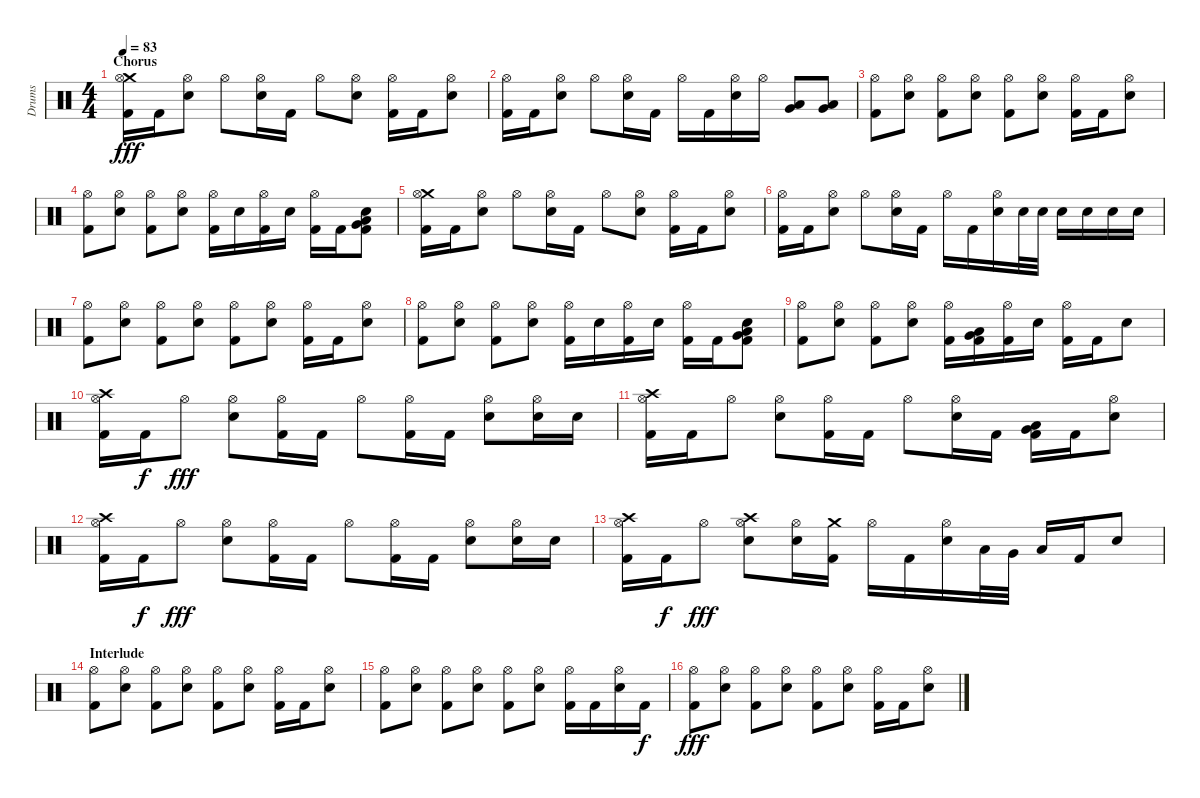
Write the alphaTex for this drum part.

\track ("Drums" "Drums") {instrument percussion}
\staff {score}
\articulation defaults
\ts (4 4)
\section ("" "Chorus")
\tempo 83
\clef neutral
\ks c
("Crash medium (hit)" "Hi-Hat (open)" "Kick (hit) 2").16{dy fff} "Kick (hit) 2".16 ("Hi-Hat (open)" "Electric Snare (hit)").8 "Hi-Hat (open)".8 ("Hi-Hat (open)" "Electric Snare (hit)").16 "Kick (hit) 2".16 "Hi-Hat (open)".8 ("Hi-Hat (open)" "Electric Snare (hit)").8 ("Hi-Hat (open)" "Kick (hit) 2").16 "Kick (hit) 2".16 ("Hi-Hat (open)" "Electric Snare (hit)").8 |
("Hi-Hat (open)" "Kick (hit) 2").16 "Kick (hit) 2".16 ("Hi-Hat (open)" "Electric Snare (hit)").8 "Hi-Hat (open)".8 ("Hi-Hat (open)" "Electric Snare (hit)").16 "Kick (hit) 2".16 "Hi-Hat (open)".16 "Kick (hit) 2".16 ("Hi-Hat (open)" "Electric Snare (hit)").16 "Hi-Hat (open)".16 ("Very Low Tom (hit)" "Low Tom (hit)").8 ("Low Floor Tom (hit)" "Very Low Tom (hit)").8 |
("Hi-Hat (open)" "Kick (hit) 2").8 ("Hi-Hat (open)" "Electric Snare (hit)").8 ("Hi-Hat (open)" "Kick (hit) 2").8 ("Hi-Hat (open)" "Electric Snare (hit)").8 ("Hi-Hat (open)" "Kick (hit) 2").8 ("Hi-Hat (open)" "Electric Snare (hit)").8 ("Hi-Hat (open)" "Kick (hit) 2").16 "Kick (hit) 2".16 ("Hi-Hat (open)" "Electric Snare (hit)").8 |
("Hi-Hat (open)" "Kick (hit) 2").8 ("Hi-Hat (open)" "Electric Snare (hit)").8 ("Hi-Hat (open)" "Kick (hit) 2").8 ("Hi-Hat (open)" "Electric Snare (hit)").8 ("Hi-Hat (open)" "Kick (hit) 2").16 "Electric Snare (hit)".16 ("Hi-Hat (open)" "Kick (hit) 2").16 "Electric Snare (hit)".16 ("Hi-Hat (open)" "Kick (hit) 2").16 "Kick (hit) 2".16 ("Electric Snare (hit)" "Very Low Tom (hit)" "Low Tom (hit)" "Kick (hit) 2").8 |
("Crash medium (hit)" "Hi-Hat (open)" "Kick (hit) 2").16 "Kick (hit) 2".16 ("Hi-Hat (open)" "Electric Snare (hit)").8 "Hi-Hat (open)".8 ("Hi-Hat (open)" "Electric Snare (hit)").16 "Kick (hit) 2".16 "Hi-Hat (open)".8 ("Hi-Hat (open)" "Electric Snare (hit)").8 ("Hi-Hat (open)" "Kick (hit) 2").16 "Kick (hit) 2".16 ("Hi-Hat (open)" "Electric Snare (hit)").8 |
("Hi-Hat (open)" "Kick (hit) 2").16 "Kick (hit) 2".16 ("Hi-Hat (open)" "Electric Snare (hit)").8 "Hi-Hat (open)".8 ("Hi-Hat (open)" "Electric Snare (hit)").16 "Kick (hit) 2".16 "Hi-Hat (open)".16 "Kick (hit) 2".16 ("Hi-Hat (open)" "Electric Snare (hit)").16 "Electric Snare (hit)".32 "Electric Snare (hit)".32 "Electric Snare (hit)".16 "Electric Snare (hit)".16 "Electric Snare (hit)".16 "Electric Snare (hit)".16 |
("Hi-Hat (open)" "Kick (hit) 2").8 ("Hi-Hat (open)" "Electric Snare (hit)").8 ("Hi-Hat (open)" "Kick (hit) 2").8 ("Hi-Hat (open)" "Electric Snare (hit)").8 ("Hi-Hat (open)" "Kick (hit) 2").8 ("Hi-Hat (open)" "Electric Snare (hit)").8 ("Hi-Hat (open)" "Kick (hit) 2").16 "Kick (hit) 2".16 ("Hi-Hat (open)" "Electric Snare (hit)").8 |
("Hi-Hat (open)" "Kick (hit) 2").8 ("Hi-Hat (open)" "Electric Snare (hit)").8 ("Hi-Hat (open)" "Kick (hit) 2").8 ("Hi-Hat (open)" "Electric Snare (hit)").8 ("Hi-Hat (open)" "Kick (hit) 2").16 "Electric Snare (hit)".16 ("Hi-Hat (open)" "Kick (hit) 2").16 "Electric Snare (hit)".16 ("Hi-Hat (open)" "Kick (hit) 2").16 "Kick (hit) 2".16 ("Electric Snare (hit)" "Very Low Tom (hit)" "Low Tom (hit)" "Kick (hit) 2").8 |
("Hi-Hat (open)" "Kick (hit) 2").8 ("Hi-Hat (open)" "Electric Snare (hit)").8 ("Hi-Hat (open)" "Kick (hit) 2").8 ("Hi-Hat (open)" "Electric Snare (hit)").8 ("Hi-Hat (open)" "Kick (hit) 2").16 ("Very Low Tom (hit)" "Low Tom (hit)" "Kick (hit) 2").16 ("Hi-Hat (open)" "Kick (hit) 2").16 "Electric Snare (hit)".16 ("Hi-Hat (open)" "Kick (hit) 2").16 "Kick (hit) 2".16 "Electric Snare (hit)".8 |
("Crash high (hit)" "Hi-Hat (open)" "Kick (hit) 2").16 "Kick (hit) 2".16{dy f} "Hi-Hat (open)".8{dy fff} ("Hi-Hat (open)" "Electric Snare (hit)").8 ("Hi-Hat (open)" "Kick (hit) 2").16 "Kick (hit) 2".16 "Hi-Hat (open)".8 ("Hi-Hat (open)" "Kick (hit) 2").16 "Kick (hit) 2".16 ("Hi-Hat (open)" "Electric Snare (hit)").8 ("Hi-Hat (open)" "Electric Snare (hit)").16 "Electric Snare (hit)".16 |
("Crash high (hit)" "Hi-Hat (open)" "Kick (hit) 2").16 "Kick (hit) 2".16 "Hi-Hat (open)".8 ("Hi-Hat (open)" "Electric Snare (hit)").8 ("Hi-Hat (open)" "Kick (hit) 2").16 "Kick (hit) 2".16 "Hi-Hat (open)".8 ("Hi-Hat (open)" "Electric Snare (hit)").16 "Kick (hit) 2".16 ("Very Low Tom (hit)" "Low Tom (hit)" "Kick (hit) 2").16 "Kick (hit) 2".16 ("Hi-Hat (open)" "Electric Snare (hit)").8 |
("Crash high (hit)" "Hi-Hat (open)" "Kick (hit) 2").16 "Kick (hit) 2".16{dy f} "Hi-Hat (open)".8{dy fff} ("Hi-Hat (open)" "Electric Snare (hit)").8 ("Hi-Hat (open)" "Kick (hit) 2").16 "Kick (hit) 2".16 "Hi-Hat (open)".8 ("Hi-Hat (open)" "Kick (hit) 2").16 "Kick (hit) 2".16 ("Hi-Hat (open)" "Electric Snare (hit)").8 ("Hi-Hat (open)" "Electric Snare (hit)").16 "Electric Snare (hit)".16 |
("Crash high (hit)" "Hi-Hat (open)" "Kick (hit) 2").16 "Kick (hit) 2".16{dy f} "Hi-Hat (open)".8{dy fff} ("Crash high (hit)" "Hi-Hat (open)" "Electric Snare (hit)").8 ("Hi-Hat (open)" "Electric Snare (hit)").16 ("Crash medium (hit)" "Kick (hit) 2").16 "Hi-Hat (open)".16 "Kick (hit) 2".16 ("Hi-Hat (open)" "Electric Snare (hit)").16 "Low Tom (hit)".32 "Very Low Tom (hit)".32 "Low Floor Tom (hit)".16 "Kick (hit) 2".16 "Electric Snare (hit)".8 |
\section ("" "Interlude")
("Hi-Hat (open)" "Kick (hit) 2").8 ("Hi-Hat (open)" "Electric Snare (hit)").8 ("Hi-Hat (open)" "Kick (hit) 2").8 ("Hi-Hat (open)" "Electric Snare (hit)").8 ("Hi-Hat (open)" "Kick (hit) 2").8 ("Hi-Hat (open)" "Electric Snare (hit)").8 ("Hi-Hat (open)" "Kick (hit) 2").16 "Kick (hit) 2".16 ("Hi-Hat (open)" "Electric Snare (hit)").8 |
("Hi-Hat (open)" "Kick (hit) 2").8 ("Hi-Hat (open)" "Electric Snare (hit)").8 ("Hi-Hat (open)" "Kick (hit) 2").8 ("Hi-Hat (open)" "Electric Snare (hit)").8 ("Hi-Hat (open)" "Kick (hit) 2").8 ("Hi-Hat (open)" "Electric Snare (hit)").8 ("Hi-Hat (open)" "Kick (hit) 2").16 "Kick (hit) 2".16 ("Hi-Hat (open)" "Electric Snare (hit)").16 "Kick (hit) 2".16{dy f} |
("Hi-Hat (open)" "Kick (hit) 2").8{dy fff} ("Hi-Hat (open)" "Electric Snare (hit)").8 ("Hi-Hat (open)" "Kick (hit) 2").8 ("Hi-Hat (open)" "Electric Snare (hit)").8 ("Hi-Hat (open)" "Kick (hit) 2").8 ("Hi-Hat (open)" "Electric Snare (hit)").8 ("Hi-Hat (open)" "Kick (hit) 2").16 "Kick (hit) 2".16 ("Hi-Hat (open)" "Electric Snare (hit)").8
